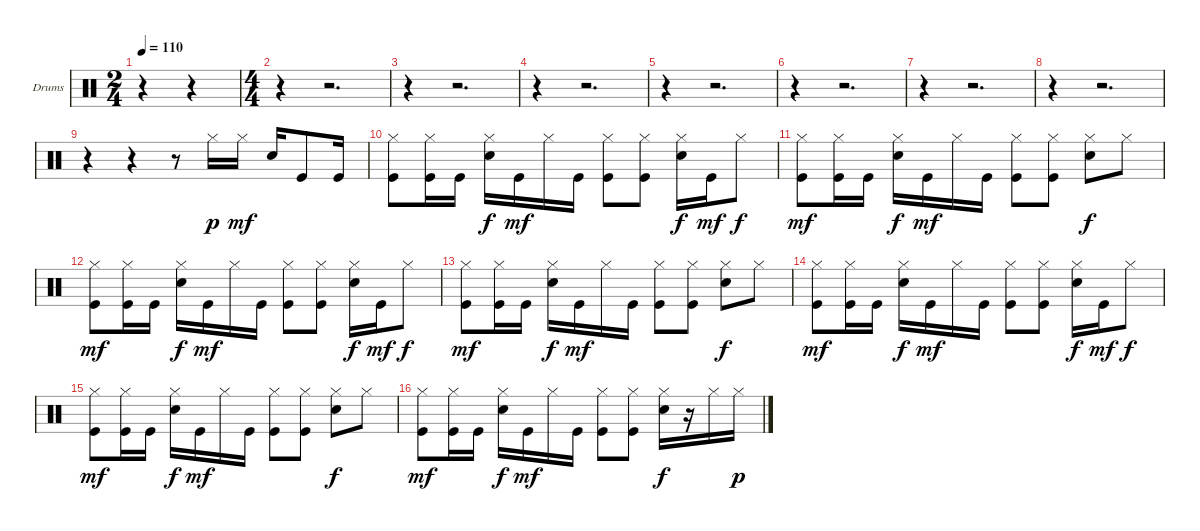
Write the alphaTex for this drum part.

\bracketExtendMode groupsimilarinstruments
\firstSystemTrackNameOrientation horizontal
\otherSystemsTrackNameOrientation horizontal
\track ("Drumkit" "Drums") {instrument percussion}
\staff {score}
\articulation defaults
\ts (2 4)
\beaming (8 2 2 2 2)
\tempo 110
\clef neutral
\ks c
r.4{dy p} r.4 |
\ts (4 4)
\beaming (8 2 2 2 2)
r.4 r.2{d} |
r.4 r.2{d} |
r.4 r.2{d} |
r.4 r.2{d} |
r.4 r.2{d} |
r.4 r.2{d} |
r.4 r.2{d} |
r.4 r.4 r.8 "Hi-Hat (closed)".16 "Hi-Hat (closed)".16{dy mf} "Snare (hit) 2".16 "Kick (hit)".8 "Kick (hit)".16 |
("Kick (hit)" "Hi-Hat (closed)").8 ("Kick (hit)" "Hi-Hat (closed)").16 "Kick (hit)".16 ("Hi-Hat (closed)" "Snare (hit) 2").16{dy f} "Kick (hit)".16{dy mf} "Hi-Hat (closed)".16 "Kick (hit)".16 ("Kick (hit)" "Hi-Hat (closed)").8 ("Kick (hit)" "Hi-Hat (closed)").8 ("Hi-Hat (closed)" "Snare (hit) 2").16{dy f} "Kick (hit)".16{dy mf} "Hi-Hat (closed)".8{dy f} |
("Kick (hit)" "Hi-Hat (closed)").8{dy mf} ("Kick (hit)" "Hi-Hat (closed)").16 "Kick (hit)".16 ("Hi-Hat (closed)" "Snare (hit) 2").16{dy f} "Kick (hit)".16{dy mf} "Hi-Hat (closed)".16 "Kick (hit)".16 ("Kick (hit)" "Hi-Hat (closed)").8 ("Kick (hit)" "Hi-Hat (closed)").8 ("Hi-Hat (closed)" "Snare (hit) 2").8{dy f} "Hi-Hat (closed)".8 |
("Kick (hit)" "Hi-Hat (closed)").8{dy mf} ("Kick (hit)" "Hi-Hat (closed)").16 "Kick (hit)".16 ("Hi-Hat (closed)" "Snare (hit) 2").16{dy f} "Kick (hit)".16{dy mf} "Hi-Hat (closed)".16 "Kick (hit)".16 ("Kick (hit)" "Hi-Hat (closed)").8 ("Kick (hit)" "Hi-Hat (closed)").8 ("Hi-Hat (closed)" "Snare (hit) 2").16{dy f} "Kick (hit)".16{dy mf} "Hi-Hat (closed)".8{dy f} |
("Kick (hit)" "Hi-Hat (closed)").8{dy mf} ("Kick (hit)" "Hi-Hat (closed)").16 "Kick (hit)".16 ("Hi-Hat (closed)" "Snare (hit) 2").16{dy f} "Kick (hit)".16{dy mf} "Hi-Hat (closed)".16 "Kick (hit)".16 ("Kick (hit)" "Hi-Hat (closed)").8 ("Kick (hit)" "Hi-Hat (closed)").8 ("Hi-Hat (closed)" "Snare (hit) 2").8{dy f} "Hi-Hat (closed)".8 |
("Kick (hit)" "Hi-Hat (closed)").8{dy mf} ("Kick (hit)" "Hi-Hat (closed)").16 "Kick (hit)".16 ("Hi-Hat (closed)" "Snare (hit) 2").16{dy f} "Kick (hit)".16{dy mf} "Hi-Hat (closed)".16 "Kick (hit)".16 ("Kick (hit)" "Hi-Hat (closed)").8 ("Kick (hit)" "Hi-Hat (closed)").8 ("Hi-Hat (closed)" "Snare (hit) 2").16{dy f} "Kick (hit)".16{dy mf} "Hi-Hat (closed)".8{dy f} |
("Kick (hit)" "Hi-Hat (closed)").8{dy mf} ("Kick (hit)" "Hi-Hat (closed)").16 "Kick (hit)".16 ("Hi-Hat (closed)" "Snare (hit) 2").16{dy f} "Kick (hit)".16{dy mf} "Hi-Hat (closed)".16 "Kick (hit)".16 ("Kick (hit)" "Hi-Hat (closed)").8 ("Kick (hit)" "Hi-Hat (closed)").8 ("Hi-Hat (closed)" "Snare (hit) 2").8{dy f} "Hi-Hat (closed)".8 |
("Kick (hit)" "Hi-Hat (closed)").8{dy mf} ("Kick (hit)" "Hi-Hat (closed)").16 "Kick (hit)".16 ("Hi-Hat (closed)" "Snare (hit) 2").16{dy f} "Kick (hit)".16{dy mf} "Hi-Hat (closed)".16 "Kick (hit)".16 ("Kick (hit)" "Hi-Hat (closed)").8 ("Kick (hit)" "Hi-Hat (closed)").8 ("Hi-Hat (closed)" "Snare (hit) 2").16{dy f} r.16 "Hi-Hat (closed)".16 "Hi-Hat (closed)".16{dy p}
